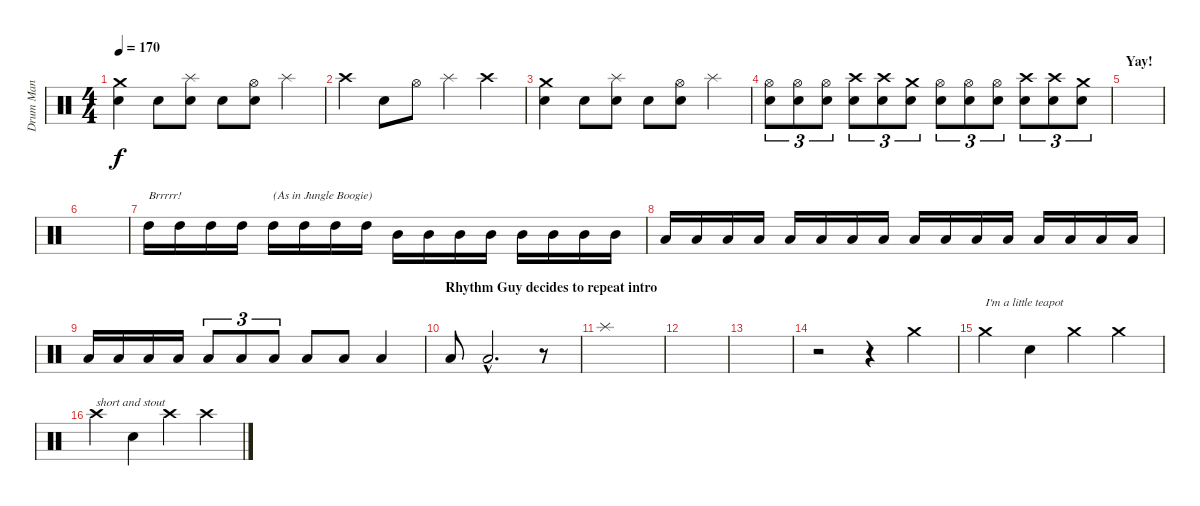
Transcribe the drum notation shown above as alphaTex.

\track ("Drum Man" "Drum Man") {instrument percussion}
\staff {score}
\articulation defaults
\ts (4 4)
\tempo 170
\clef neutral
\ks c
("Crash medium (hit)" "Electric Snare (hit)").4{dy f} "Electric Snare (hit)".8 ("Splash (hit)" "Electric Snare (hit)").8 "Electric Snare (hit)".8 ("Hi-Hat (open)" "Electric Snare (hit)").8 "Splash (hit)".4 |
"Crash high (hit)".4 "Electric Snare (hit)".8 "Hi-Hat (open)".8 "Splash (hit)".4 "Crash high (hit)".4 |
("Crash medium (hit)" "Electric Snare (hit)").4 "Electric Snare (hit)".8 ("Splash (hit)" "Electric Snare (hit)").8 "Electric Snare (hit)".8 ("Hi-Hat (open)" "Electric Snare (hit)").8 "Splash (hit)".4 |
("Hi-Hat (open)" "Electric Snare (hit)").8{tu (3 2)} ("Hi-Hat (open)" "Electric Snare (hit)").8{tu (3 2)} ("Hi-Hat (open)" "Electric Snare (hit)").8{tu (3 2)} ("Crash high (hit)" "Electric Snare (hit)").8{tu (3 2)} ("Crash high (hit)" "Electric Snare (hit)").8{tu (3 2)} ("Crash medium (hit)" "Electric Snare (hit)").8{tu (3 2)} ("Hi-Hat (open)" "Electric Snare (hit)").8{tu (3 2)} ("Hi-Hat (open)" "Electric Snare (hit)").8{tu (3 2)} ("Hi-Hat (open)" "Electric Snare (hit)").8{tu (3 2)} ("Crash high (hit)" "Electric Snare (hit)").8{tu (3 2)} ("Crash high (hit)" "Electric Snare (hit)").8{tu (3 2)} ("Crash medium (hit)" "Electric Snare (hit)").8{tu (3 2)} |
\section ("" "Yay!")
|
|
"High Tom (hit)".16{txt "Brrrrr!"} "High Tom (hit)".16 "High Tom (hit)".16 "High Tom (hit)".16 "High Tom (hit)".16{txt "(As in Jungle Boogie)"} "High Tom (hit)".16 "High Tom (hit)".16 "High Tom (hit)".16 "Mid Tom (hit)".16 "Mid Tom (hit)".16 "Mid Tom (hit)".16 "Mid Tom (hit)".16 "Mid Tom (hit)".16 "Mid Tom (hit)".16 "Mid Tom (hit)".16 "Mid Tom (hit)".16 |
"Low Tom (hit)".16 "Low Tom (hit)".16 "Low Tom (hit)".16 "Low Tom (hit)".16 "Low Tom (hit)".16 "Low Tom (hit)".16 "Low Tom (hit)".16 "Low Tom (hit)".16 "Low Floor Tom (hit)".16 "Low Floor Tom (hit)".16 "Low Floor Tom (hit)".16 "Low Floor Tom (hit)".16 "Low Floor Tom (hit)".16 "Low Floor Tom (hit)".16 "Low Floor Tom (hit)".16 "Low Floor Tom (hit)".16 |
"Low Floor Tom (hit)".16 "Low Floor Tom (hit)".16 "Low Floor Tom (hit)".16 "Low Floor Tom (hit)".16 "Low Floor Tom (hit)".8{tu (3 2)} "Low Floor Tom (hit)".8{tu (3 2)} "Low Floor Tom (hit)".8{tu (3 2)} "Low Floor Tom (hit)".8 "Low Floor Tom (hit)".8 "Low Floor Tom (hit)".4 |
\section ("" "Rhythm Guy decides to repeat intro")
"Low Floor Tom (hit)".8 "Low Floor Tom (hit)"{hac}.2{d} r.8 |
"Splash (hit)".1 |
|
|
r.2 r.4 "Crash medium (hit)".4 |
"Crash medium (hit)".4{txt "I'm a little teapot"} "Electric Snare (hit)".4 "Crash medium (hit)".4 "Crash medium (hit)".4 |
"Crash high (hit)".4{txt "short and stout"} "Electric Snare (hit)".4 "Crash high (hit)".4 "Crash high (hit)".4
